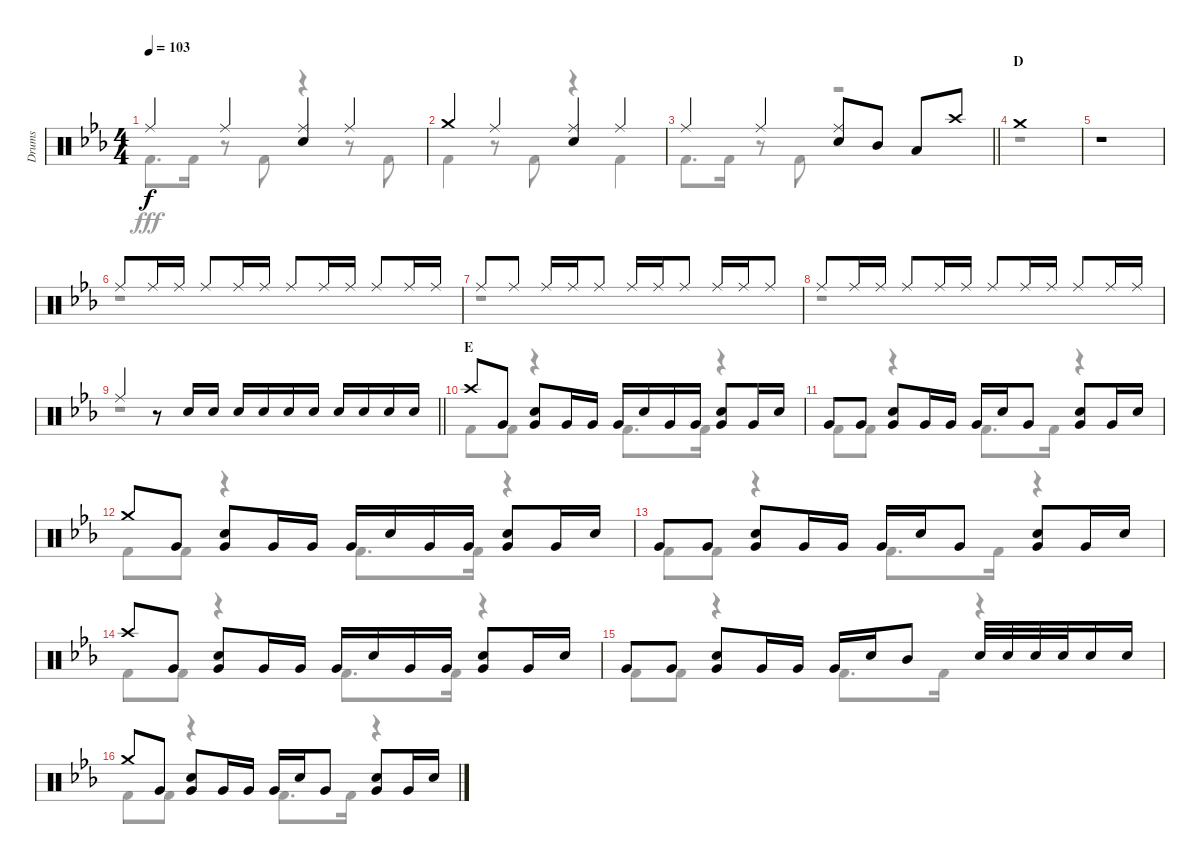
\track ("Drums" "Drums") {instrument percussion}
\staff {score}
\articulation defaults
\voice
\ts (4 4)
\tempo 103
\clef neutral
\ks eb "Ride (middle)".4{dy f} "Ride (middle)".4
("Ride (middle)" "Snare (hit) 2").4 "Ride (middle)".4 |
"Crash medium (hit)".4 "Ride (middle)".4 ("Ride (middle)" "Snare (hit) 2").4 "Ride (middle)".4 |
\barLineRight lightlight "Ride (middle)".4 "Ride (middle)".4
("Ride (middle)" "Snare (hit) 2").8 "Mid Tom (hit)".8 "Low Tom (hit)".8 "Crash high (hit)".8 |
\section ("" "D")
"Crash medium (hit)".1 |
r.1 |
"Ride (middle)".8 "Ride (middle)".16 "Ride (middle)".16 "Ride (middle)".8 "Ride (middle)".16 "Ride (middle)".16 "Ride (middle)".8 "Ride (middle)".16 "Ride (middle)".16 "Ride (middle)".8 "Ride (middle)".16 "Ride (middle)".16 |
"Ride (middle)".8 "Ride (middle)".8 "Ride (middle)".16 "Ride (middle)".16 "Ride (middle)".8 "Ride (middle)".16 "Ride (middle)".16 "Ride (middle)".8 "Ride (middle)".16 "Ride (middle)".16 "Ride (middle)".8 |
"Ride (middle)".8 "Ride (middle)".16 "Ride (middle)".16 "Ride (middle)".8 "Ride (middle)".16 "Ride (middle)".16 "Ride (middle)".8 "Ride (middle)".16 "Ride (middle)".16 "Ride (middle)".8 "Ride (middle)".16 "Ride (middle)".16 |
\barLineRight lightlight "Ride (middle)".4
r.8 "Snare (hit) 2".16 "Snare (hit) 2".16 "Snare (hit) 2".16 "Snare (hit) 2".16 "Snare (hit) 2".16 "Snare (hit) 2".16 "Snare (hit) 2".16 "Snare (hit) 2".16 "Snare (hit) 2".16 "Snare (hit) 2".16 |
\section ("" "E")
"Crash high (hit)".8 "Very Low Tom (hit)".8 ("Snare (hit) 2" "Very Low Tom (hit)").8 "Very Low Tom (hit)".16 "Very Low Tom (hit)".16 "Very Low Tom (hit)".16 "Snare (hit) 2".16 "Very Low Tom (hit)".16 "Very Low Tom (hit)".16 ("Snare (hit) 2" "Very Low Tom (hit)").8 "Very Low Tom (hit)".16 "Snare (hit) 2".16 |
"Very Low Tom (hit)".8 "Very Low Tom (hit)".8 ("Snare (hit) 2" "Very Low Tom (hit)").8 "Very Low Tom (hit)".16 "Very Low Tom (hit)".16 "Very Low Tom (hit)".16 "Snare (hit) 2".16 "Very Low Tom (hit)".8 ("Snare (hit) 2" "Very Low Tom (hit)").8 "Very Low Tom (hit)".16 "Snare (hit) 2".16 |
"Crash medium (hit)".8 "Very Low Tom (hit)".8 ("Snare (hit) 2" "Very Low Tom (hit)").8 "Very Low Tom (hit)".16 "Very Low Tom (hit)".16 "Very Low Tom (hit)".16 "Snare (hit) 2".16 "Very Low Tom (hit)".16 "Very Low Tom (hit)".16 ("Snare (hit) 2" "Very Low Tom (hit)").8 "Very Low Tom (hit)".16 "Snare (hit) 2".16 |
"Very Low Tom (hit)".8 "Very Low Tom (hit)".8 ("Snare (hit) 2" "Very Low Tom (hit)").8 "Very Low Tom (hit)".16 "Very Low Tom (hit)".16 "Very Low Tom (hit)".16 "Snare (hit) 2".16 "Very Low Tom (hit)".8 ("Snare (hit) 2" "Very Low Tom (hit)").8 "Very Low Tom (hit)".16 "Snare (hit) 2".16 |
"Crash high (hit)".8 "Very Low Tom (hit)".8 ("Snare (hit) 2" "Very Low Tom (hit)").8 "Very Low Tom (hit)".16 "Very Low Tom (hit)".16 "Very Low Tom (hit)".16 "Snare (hit) 2".16 "Very Low Tom (hit)".16 "Very Low Tom (hit)".16 ("Snare (hit) 2" "Very Low Tom (hit)").8 "Very Low Tom (hit)".16 "Snare (hit) 2".16 |
"Very Low Tom (hit)".8 "Very Low Tom (hit)".8 ("Snare (hit) 2" "Very Low Tom (hit)").8 "Very Low Tom (hit)".16 "Very Low Tom (hit)".16 "Very Low Tom (hit)".16 "Snare (hit) 2".16 "Mid Tom (hit)".8 "Snare (hit) 2".32 "Snare (hit) 2".32 "Snare (hit) 2".32 "Snare (hit) 2".32 "Snare (hit) 2".16 "Snare (hit) 2".16 |
"Crash medium (hit)".8 "Very Low Tom (hit)".8 ("Snare (hit) 2" "Very Low Tom (hit)").8 "Very Low Tom (hit)".16 "Very Low Tom (hit)".16 "Very Low Tom (hit)".16 "Snare (hit) 2".16 "Very Low Tom (hit)".8 ("Snare (hit) 2" "Very Low Tom (hit)").8 "Very Low Tom (hit)".16 "Snare (hit) 2".16
\voice
\clef neutral
\ottava regular
\simile none
\ks eb "Kick (hit) 2".8{d dy fff} "Kick (hit) 2".16
r.8 "Kick (hit) 2".8 r.4 r.8 "Kick (hit) 2".8 |
"Kick (hit) 2".4 r.8 "Kick (hit) 2".8 r.4 "Kick (hit) 2".4 |
\barLineRight lightlight "Kick (hit) 2".8{d} "Kick (hit) 2".16
r.8 "Kick (hit) 2".8 r.2 |
r.1 |
r.1 |
r.1 |
r.1 |
r.1 |
\barLineRight lightlight
r.1 |
"Kick (hit) 2".8 "Kick (hit) 2".8 r.4 "Kick (hit) 2".8{d} "Kick (hit) 2".16 r.4 |
"Kick (hit) 2".8 "Kick (hit) 2".8 r.4 "Kick (hit) 2".8{d} "Kick (hit) 2".16 r.4 |
"Kick (hit) 2".8 "Kick (hit) 2".8 r.4 "Kick (hit) 2".8{d} "Kick (hit) 2".16 r.4 |
"Kick (hit) 2".8 "Kick (hit) 2".8 r.4 "Kick (hit) 2".8{d} "Kick (hit) 2".16 r.4 |
"Kick (hit) 2".8 "Kick (hit) 2".8 r.4 "Kick (hit) 2".8{d} "Kick (hit) 2".16 r.4 |
"Kick (hit) 2".8 "Kick (hit) 2".8 r.4 "Kick (hit) 2".8{d} "Kick (hit) 2".16 r.4 |
"Kick (hit) 2".8 "Kick (hit) 2".8 r.4 "Kick (hit) 2".8{d} "Kick (hit) 2".16 r.4
